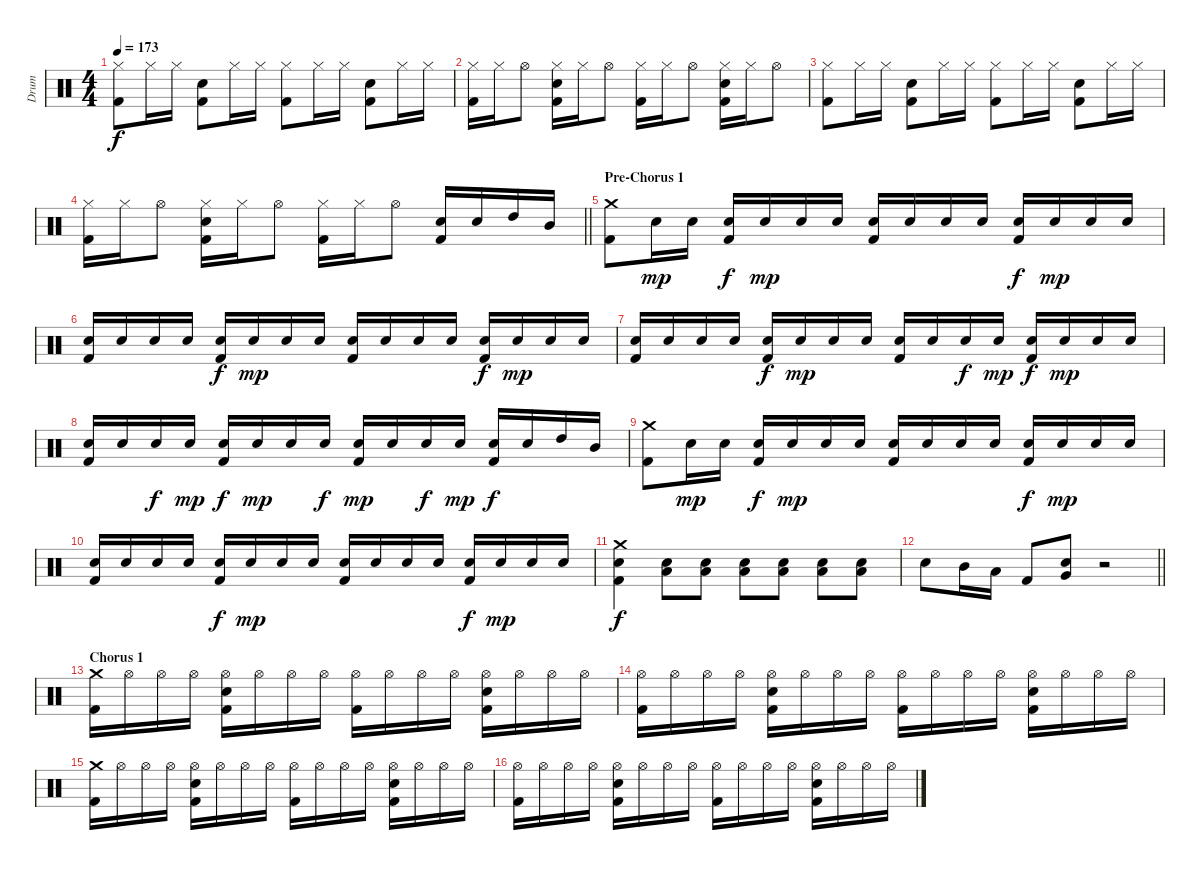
\track ("Drum" "Drum") {instrument percussion}
\staff {score}
\articulation defaults
\ts (4 4)
\tempo 173
\clef neutral
\ks c
("Hi-Hat (closed)" "Kick (hit) 2").8{dy f} "Hi-Hat (closed)".16 "Hi-Hat (closed)".16 ("Kick (hit) 2" "Snare (hit) 2").8 "Hi-Hat (closed)".16 "Hi-Hat (closed)".16 ("Hi-Hat (closed)" "Kick (hit) 2").8 "Hi-Hat (closed)".16 "Hi-Hat (closed)".16 ("Kick (hit) 2" "Snare (hit) 2").8 "Hi-Hat (closed)".16 "Hi-Hat (closed)".16 |
("Hi-Hat (closed)" "Kick (hit) 2").16 "Hi-Hat (closed)".16 "Hi-Hat (open)".8 ("Hi-Hat (closed)" "Kick (hit) 2" "Snare (hit) 2").16 "Hi-Hat (closed)".16 "Hi-Hat (open)".8 ("Hi-Hat (closed)" "Kick (hit) 2").16 "Hi-Hat (closed)".16 "Hi-Hat (open)".8 ("Hi-Hat (closed)" "Kick (hit) 2" "Snare (hit) 2").16 "Hi-Hat (closed)".16 "Hi-Hat (open)".8 |
("Hi-Hat (closed)" "Kick (hit) 2").8 "Hi-Hat (closed)".16 "Hi-Hat (closed)".16 ("Kick (hit) 2" "Snare (hit) 2").8 "Hi-Hat (closed)".16 "Hi-Hat (closed)".16 ("Hi-Hat (closed)" "Kick (hit) 2").8 "Hi-Hat (closed)".16 "Hi-Hat (closed)".16 ("Kick (hit) 2" "Snare (hit) 2").8 "Hi-Hat (closed)".16 "Hi-Hat (closed)".16 |
\barLineRight lightlight
("Hi-Hat (closed)" "Kick (hit) 2").16 "Hi-Hat (closed)".16 "Hi-Hat (open)".8 ("Hi-Hat (closed)" "Kick (hit) 2" "Snare (hit) 2").16 "Hi-Hat (closed)".16 "Hi-Hat (open)".8 ("Hi-Hat (closed)" "Kick (hit) 2").16 "Hi-Hat (closed)".16 "Hi-Hat (open)".8 ("Snare (hit) 2" "Kick (hit) 2").16 "Snare (hit) 2".16 "High Tom (hit)".16 "Mid Tom (hit)".16 |
\section ("" "Pre-Chorus 1")
("Crash medium (hit)" "Kick (hit) 2").8 "Snare (hit) 2".16{dy mp} "Snare (hit) 2".16 ("Snare (hit) 2" "Kick (hit) 2").16{dy f} "Snare (hit) 2".16{dy mp} "Snare (hit) 2".16 "Snare (hit) 2".16 ("Snare (hit) 2" "Kick (hit) 2").16 "Snare (hit) 2".16 "Snare (hit) 2".16 "Snare (hit) 2".16 ("Snare (hit) 2" "Kick (hit) 2").16{dy f} "Snare (hit) 2".16{dy mp} "Snare (hit) 2".16 "Snare (hit) 2".16 |
("Snare (hit) 2" "Kick (hit) 2").16 "Snare (hit) 2".16 "Snare (hit) 2".16 "Snare (hit) 2".16 ("Snare (hit) 2" "Kick (hit) 2").16{dy f} "Snare (hit) 2".16{dy mp} "Snare (hit) 2".16 "Snare (hit) 2".16 ("Snare (hit) 2" "Kick (hit) 2").16 "Snare (hit) 2".16 "Snare (hit) 2".16 "Snare (hit) 2".16 ("Snare (hit) 2" "Kick (hit) 2").16{dy f} "Snare (hit) 2".16{dy mp} "Snare (hit) 2".16 "Snare (hit) 2".16 |
("Snare (hit) 2" "Kick (hit) 2").16 "Snare (hit) 2".16 "Snare (hit) 2".16 "Snare (hit) 2".16 ("Snare (hit) 2" "Kick (hit) 2").16{dy f} "Snare (hit) 2".16{dy mp} "Snare (hit) 2".16 "Snare (hit) 2".16 ("Snare (hit) 2" "Kick (hit) 2").16 "Snare (hit) 2".16 "Snare (hit) 2".16{dy f} "Snare (hit) 2".16{dy mp} ("Snare (hit) 2" "Kick (hit) 2").16{dy f} "Snare (hit) 2".16{dy mp} "Snare (hit) 2".16 "Snare (hit) 2".16 |
("Snare (hit) 2" "Kick (hit) 2").16 "Snare (hit) 2".16 "Snare (hit) 2".16{dy f} "Snare (hit) 2".16{dy mp} ("Snare (hit) 2" "Kick (hit) 2").16{dy f} "Snare (hit) 2".16{dy mp} "Snare (hit) 2".16 "Snare (hit) 2".16{dy f} ("Snare (hit) 2" "Kick (hit) 2").16{dy mp} "Snare (hit) 2".16 "Snare (hit) 2".16{dy f} "Snare (hit) 2".16{dy mp} ("Snare (hit) 2" "Kick (hit) 2").16{dy f} "Snare (hit) 2".16 "High Tom (hit)".16 "Mid Tom (hit)".16 |
("Crash medium (hit)" "Kick (hit) 2").8 "Snare (hit) 2".16{dy mp} "Snare (hit) 2".16 ("Snare (hit) 2" "Kick (hit) 2").16{dy f} "Snare (hit) 2".16{dy mp} "Snare (hit) 2".16 "Snare (hit) 2".16 ("Snare (hit) 2" "Kick (hit) 2").16 "Snare (hit) 2".16 "Snare (hit) 2".16 "Snare (hit) 2".16 ("Snare (hit) 2" "Kick (hit) 2").16{dy f} "Snare (hit) 2".16{dy mp} "Snare (hit) 2".16 "Snare (hit) 2".16 |
("Snare (hit) 2" "Kick (hit) 2").16 "Snare (hit) 2".16 "Snare (hit) 2".16 "Snare (hit) 2".16 ("Snare (hit) 2" "Kick (hit) 2").16{dy f} "Snare (hit) 2".16{dy mp} "Snare (hit) 2".16 "Snare (hit) 2".16 ("Snare (hit) 2" "Kick (hit) 2").16 "Snare (hit) 2".16 "Snare (hit) 2".16 "Snare (hit) 2".16 ("Snare (hit) 2" "Kick (hit) 2").16{dy f} "Snare (hit) 2".16{dy mp} "Snare (hit) 2".16 "Snare (hit) 2".16 |
("Snare (hit) 2" "Crash medium (hit)" "Kick (hit) 2").4{dy f} ("Low Tom (hit)" "Snare (hit) 2").8 ("Low Tom (hit)" "Snare (hit) 2").8 ("Low Tom (hit)" "Snare (hit) 2").8 ("Low Tom (hit)" "Snare (hit) 2").8 ("Low Tom (hit)" "Snare (hit) 2").8 ("Low Tom (hit)" "Snare (hit) 2").8 |
\barLineRight lightlight "Snare (hit) 2".8 "Mid Tom (hit)".16 "Low Tom (hit)".16 "Kick (hit) 2".8
("Snare (hit) 2" "Very Low Tom (hit)").8 r.2 |
\section ("" "Chorus 1")
("Crash medium (hit)" "Kick (hit) 2").16 "Hi-Hat (open)".16 "Hi-Hat (open)".16 "Hi-Hat (open)".16 ("Hi-Hat (open)" "Kick (hit) 2" "Snare (hit) 2").16 "Hi-Hat (open)".16 "Hi-Hat (open)".16 "Hi-Hat (open)".16 ("Hi-Hat (open)" "Kick (hit) 2").16 "Hi-Hat (open)".16 "Hi-Hat (open)".16 "Hi-Hat (open)".16 ("Hi-Hat (open)" "Kick (hit) 2" "Snare (hit) 2").16 "Hi-Hat (open)".16 "Hi-Hat (open)".16 "Hi-Hat (open)".16 |
("Hi-Hat (open)" "Kick (hit) 2").16 "Hi-Hat (open)".16 "Hi-Hat (open)".16 "Hi-Hat (open)".16 ("Hi-Hat (open)" "Kick (hit) 2" "Snare (hit) 2").16 "Hi-Hat (open)".16 "Hi-Hat (open)".16 "Hi-Hat (open)".16 ("Hi-Hat (open)" "Kick (hit) 2").16 "Hi-Hat (open)".16 "Hi-Hat (open)".16 "Hi-Hat (open)".16 ("Hi-Hat (open)" "Kick (hit) 2" "Snare (hit) 2").16 "Hi-Hat (open)".16 "Hi-Hat (open)".16 "Hi-Hat (open)".16 |
("Crash medium (hit)" "Kick (hit) 2").16 "Hi-Hat (open)".16 "Hi-Hat (open)".16 "Hi-Hat (open)".16 ("Hi-Hat (open)" "Kick (hit) 2" "Snare (hit) 2").16 "Hi-Hat (open)".16 "Hi-Hat (open)".16 "Hi-Hat (open)".16 ("Hi-Hat (open)" "Kick (hit) 2").16 "Hi-Hat (open)".16 "Hi-Hat (open)".16 "Hi-Hat (open)".16 ("Hi-Hat (open)" "Kick (hit) 2" "Snare (hit) 2").16 "Hi-Hat (open)".16 "Hi-Hat (open)".16 "Hi-Hat (open)".16 |
("Hi-Hat (open)" "Kick (hit) 2").16 "Hi-Hat (open)".16 "Hi-Hat (open)".16 "Hi-Hat (open)".16 ("Hi-Hat (open)" "Kick (hit) 2" "Snare (hit) 2").16 "Hi-Hat (open)".16 "Hi-Hat (open)".16 "Hi-Hat (open)".16 ("Hi-Hat (open)" "Kick (hit) 2").16 "Hi-Hat (open)".16 "Hi-Hat (open)".16 "Hi-Hat (open)".16 ("Hi-Hat (open)" "Kick (hit) 2" "Snare (hit) 2").16 "Hi-Hat (open)".16 "Hi-Hat (open)".16 "Hi-Hat (open)".16
